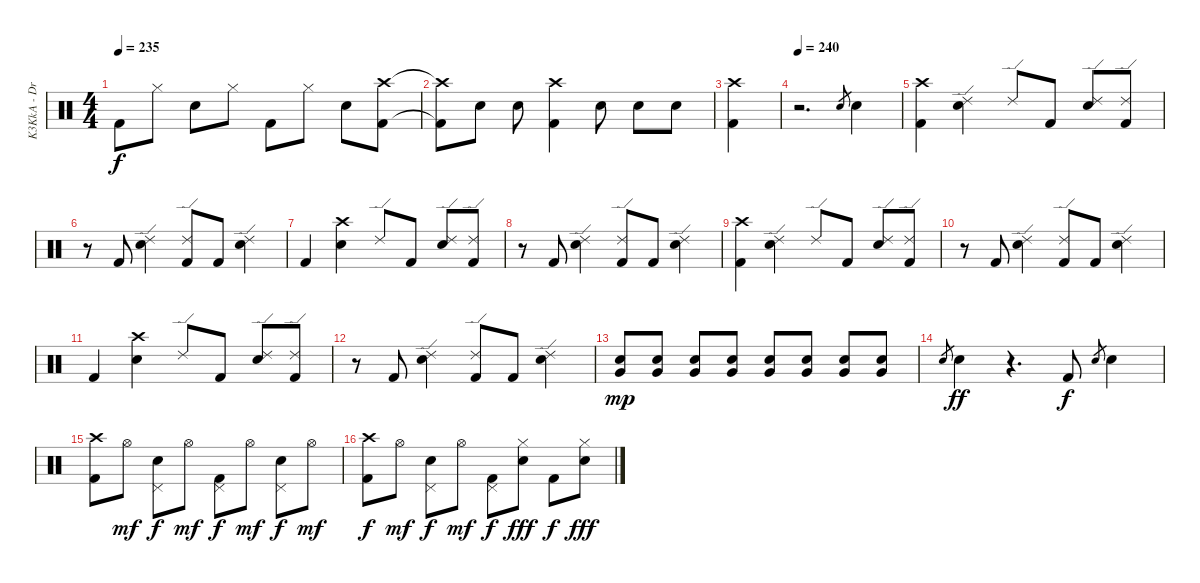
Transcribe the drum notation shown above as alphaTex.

\track ("K3KkA - Drums" "K3KkA - Dr") {instrument percussion}
\staff {score}
\articulation defaults
\ts (4 4)
\tempo 235
\clef neutral
\ks c "Kick (hit) 2".8{dy f} "Hi-Hat (closed)".8 "Snare (hit) 2".8 "Hi-Hat (closed)".8 "Kick (hit) 2".8 "Hi-Hat (closed)".8 "Snare (hit) 2".8
("Crash high (hit)" "Kick (hit) 2").8 |
("Crash high (hit)"{t} "Kick (hit) 2"{t}).8 "Snare (hit) 2".8 "Snare (hit) 2".8 ("Crash high (hit)" "Kick (hit) 2").4 "Snare (hit) 2".8 "Snare (hit) 2".8 "Snare (hit) 2".8 |
("Crash high (hit)" "Kick (hit) 2").4 |
\tempo 240
r.2{d} "Snare (hit) 2".8{gr} "Snare (hit) 2".4 |
("Crash high (hit)" "Kick (hit) 2").4 ("Ride (edge) 2" "Snare (hit) 2").4 "Ride (edge) 2".8 "Kick (hit) 2".8 ("Ride (edge) 2" "Snare (hit) 2").8 ("Ride (edge) 2" "Kick (hit) 2").8 |
r.8 "Kick (hit) 2".8 ("Ride (edge) 2" "Snare (hit) 2").4 ("Ride (edge) 2" "Kick (hit) 2").8 "Kick (hit) 2".8 ("Ride (edge) 2" "Snare (hit) 2").4 |
"Kick (hit) 2".4 ("Crash high (hit)" "Snare (hit) 2").4 "Ride (edge) 2".8 "Kick (hit) 2".8 ("Ride (edge) 2" "Snare (hit) 2").8 ("Ride (edge) 2" "Kick (hit) 2").8 |
r.8 "Kick (hit) 2".8 ("Ride (edge) 2" "Snare (hit) 2").4 ("Ride (edge) 2" "Kick (hit) 2").8 "Kick (hit) 2".8 ("Ride (edge) 2" "Snare (hit) 2").4 |
("Crash high (hit)" "Kick (hit) 2").4 ("Ride (edge) 2" "Snare (hit) 2").4 "Ride (edge) 2".8 "Kick (hit) 2".8 ("Ride (edge) 2" "Snare (hit) 2").8 ("Ride (edge) 2" "Kick (hit) 2").8 |
r.8 "Kick (hit) 2".8 ("Ride (edge) 2" "Snare (hit) 2").4 ("Ride (edge) 2" "Kick (hit) 2").8 "Kick (hit) 2".8 ("Ride (edge) 2" "Snare (hit) 2").4 |
"Kick (hit) 2".4 ("Crash high (hit)" "Snare (hit) 2").4 "Ride (edge) 2".8 "Kick (hit) 2".8 ("Ride (edge) 2" "Snare (hit) 2").8 ("Ride (edge) 2" "Kick (hit) 2").8 |
r.8 "Kick (hit) 2".8 ("Ride (edge) 2" "Snare (hit) 2").4 ("Ride (edge) 2" "Kick (hit) 2").8 "Kick (hit) 2".8 ("Ride (edge) 2" "Snare (hit) 2").4 |
("Very Low Tom (hit)" "Snare (hit) 2").8{dy mp} ("Very Low Tom (hit)" "Snare (hit) 2").8 ("Very Low Tom (hit)" "Snare (hit) 2").8 ("Very Low Tom (hit)" "Snare (hit) 2").8 ("Very Low Tom (hit)" "Snare (hit) 2").8 ("Very Low Tom (hit)" "Snare (hit) 2").8 ("Very Low Tom (hit)" "Snare (hit) 2").8 ("Very Low Tom (hit)" "Snare (hit) 2").8 |
"Snare (hit) 2".8{gr} "Snare (hit) 2".4{dy ff} r.4{d} "Kick (hit) 2".8{dy f} "Snare (hit) 2".8{gr} "Snare (hit) 2".4 |
("Crash high (hit)" "Kick (hit) 2").8 "Hi-Hat (open)".8{dy mf} ("Pedal Hi-Hat (hit)" "Snare (hit) 2").8{dy f} "Hi-Hat (open)".8{dy mf} ("Pedal Hi-Hat (hit)" "Kick (hit) 2").8{dy f} "Hi-Hat (open)".8{dy mf} ("Pedal Hi-Hat (hit)" "Snare (hit) 2").8{dy f} "Hi-Hat (open)".8{dy mf} |
("Crash high (hit)" "Kick (hit) 2").8{dy f} "Hi-Hat (open)".8{dy mf} ("Pedal Hi-Hat (hit)" "Snare (hit) 2").8{dy f} "Hi-Hat (open)".8{dy mf} ("Pedal Hi-Hat (hit)" "Kick (hit) 2").8{dy f} ("Hi-Hat (closed)" "Snare (hit) 2").8{dy fff} "Kick (hit) 2".8{dy f} ("Hi-Hat (closed)" "Snare (hit) 2").8{dy fff}
